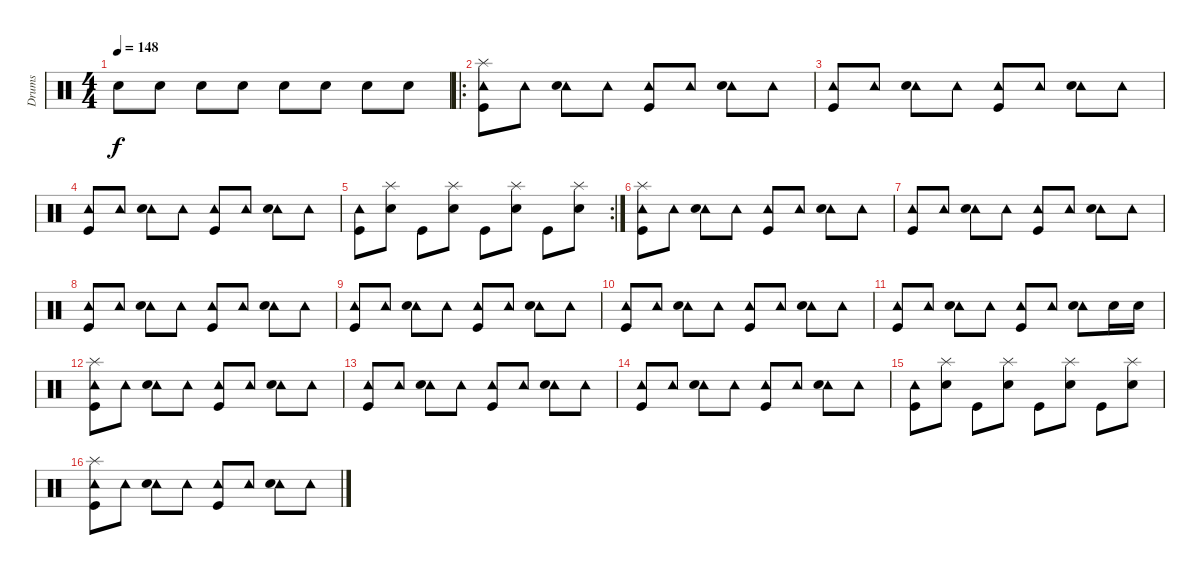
\track ("Drums" "Drums") {instrument percussion}
\staff {score}
\articulation defaults
\ts (4 4)
\tempo 148
\clef neutral
\ks c "Snare (hit) 2".8{dy f} "Snare (hit) 2".8 "Snare (hit) 2".8 "Snare (hit) 2".8 "Snare (hit) 2".8 "Snare (hit) 2".8 "Snare (hit) 2".8 "Snare (hit) 2".8
|
\ro
("Tambourine (hit)" "Kick (hit)" "Splash (hit)").8 "Tambourine (hit)".8 ("Tambourine (hit)" "Snare (hit) 2").8 "Tambourine (hit)".8 ("Tambourine (hit)" "Kick (hit)").8 "Tambourine (hit)".8 ("Tambourine (hit)" "Snare (hit) 2").8 "Tambourine (hit)".8 |
("Tambourine (hit)" "Kick (hit)").8 "Tambourine (hit)".8 ("Tambourine (hit)" "Snare (hit) 2").8 "Tambourine (hit)".8 ("Tambourine (hit)" "Kick (hit)").8 "Tambourine (hit)".8 ("Tambourine (hit)" "Snare (hit) 2").8 "Tambourine (hit)".8 |
("Tambourine (hit)" "Kick (hit)").8 "Tambourine (hit)".8 ("Tambourine (hit)" "Snare (hit) 2").8 "Tambourine (hit)".8 ("Tambourine (hit)" "Kick (hit)").8 "Tambourine (hit)".8 ("Tambourine (hit)" "Snare (hit) 2").8 "Tambourine (hit)".8 |
\rc 2
("Tambourine (hit)" "Kick (hit)").8 ("Snare (hit) 2" "Splash (hit)").8 "Kick (hit)".8 ("Snare (hit) 2" "Splash (hit)").8 "Kick (hit)".8 ("Snare (hit) 2" "Splash (hit)").8 "Kick (hit)".8 ("Snare (hit) 2" "Splash (hit)").8 |
("Tambourine (hit)" "Kick (hit)" "Splash (hit)").8 "Tambourine (hit)".8 ("Tambourine (hit)" "Snare (hit) 2").8 "Tambourine (hit)".8 ("Tambourine (hit)" "Kick (hit)").8 "Tambourine (hit)".8 ("Tambourine (hit)" "Snare (hit) 2").8 "Tambourine (hit)".8 |
("Tambourine (hit)" "Kick (hit)").8 "Tambourine (hit)".8 ("Tambourine (hit)" "Snare (hit) 2").8 "Tambourine (hit)".8 ("Tambourine (hit)" "Kick (hit)").8 "Tambourine (hit)".8 ("Tambourine (hit)" "Snare (hit) 2").8 "Tambourine (hit)".8 |
("Tambourine (hit)" "Kick (hit)").8 "Tambourine (hit)".8 ("Tambourine (hit)" "Snare (hit) 2").8 "Tambourine (hit)".8 ("Tambourine (hit)" "Kick (hit)").8 "Tambourine (hit)".8 ("Tambourine (hit)" "Snare (hit) 2").8 "Tambourine (hit)".8 |
("Tambourine (hit)" "Kick (hit)").8 "Tambourine (hit)".8 ("Tambourine (hit)" "Snare (hit) 2").8 "Tambourine (hit)".8 ("Tambourine (hit)" "Kick (hit)").8 "Tambourine (hit)".8 ("Tambourine (hit)" "Snare (hit) 2").8 "Tambourine (hit)".8 |
("Tambourine (hit)" "Kick (hit)").8 "Tambourine (hit)".8 ("Tambourine (hit)" "Snare (hit) 2").8 "Tambourine (hit)".8 ("Tambourine (hit)" "Kick (hit)").8 "Tambourine (hit)".8 ("Tambourine (hit)" "Snare (hit) 2").8 "Tambourine (hit)".8 |
("Tambourine (hit)" "Kick (hit)").8 "Tambourine (hit)".8 ("Tambourine (hit)" "Snare (hit) 2").8 "Tambourine (hit)".8 ("Tambourine (hit)" "Kick (hit)").8 "Tambourine (hit)".8 ("Tambourine (hit)" "Snare (hit) 2").8 "Snare (hit) 2".16 "Snare (hit) 2".16 |
("Tambourine (hit)" "Kick (hit)" "Splash (hit)").8 "Tambourine (hit)".8 ("Tambourine (hit)" "Snare (hit) 2").8 "Tambourine (hit)".8 ("Tambourine (hit)" "Kick (hit)").8 "Tambourine (hit)".8 ("Tambourine (hit)" "Snare (hit) 2").8 "Tambourine (hit)".8 |
("Tambourine (hit)" "Kick (hit)").8 "Tambourine (hit)".8 ("Tambourine (hit)" "Snare (hit) 2").8 "Tambourine (hit)".8 ("Tambourine (hit)" "Kick (hit)").8 "Tambourine (hit)".8 ("Tambourine (hit)" "Snare (hit) 2").8 "Tambourine (hit)".8 |
("Tambourine (hit)" "Kick (hit)").8 "Tambourine (hit)".8 ("Tambourine (hit)" "Snare (hit) 2").8 "Tambourine (hit)".8 ("Tambourine (hit)" "Kick (hit)").8 "Tambourine (hit)".8 ("Tambourine (hit)" "Snare (hit) 2").8 "Tambourine (hit)".8 |
("Tambourine (hit)" "Kick (hit)").8 ("Snare (hit) 2" "Splash (hit)").8 "Kick (hit)".8 ("Snare (hit) 2" "Splash (hit)").8 "Kick (hit)".8 ("Snare (hit) 2" "Splash (hit)").8 "Kick (hit)".8 ("Snare (hit) 2" "Splash (hit)").8 |
("Tambourine (hit)" "Kick (hit)" "Splash (hit)").8 "Tambourine (hit)".8 ("Tambourine (hit)" "Snare (hit) 2").8 "Tambourine (hit)".8 ("Tambourine (hit)" "Kick (hit)").8 "Tambourine (hit)".8 ("Tambourine (hit)" "Snare (hit) 2").8 "Tambourine (hit)".8
